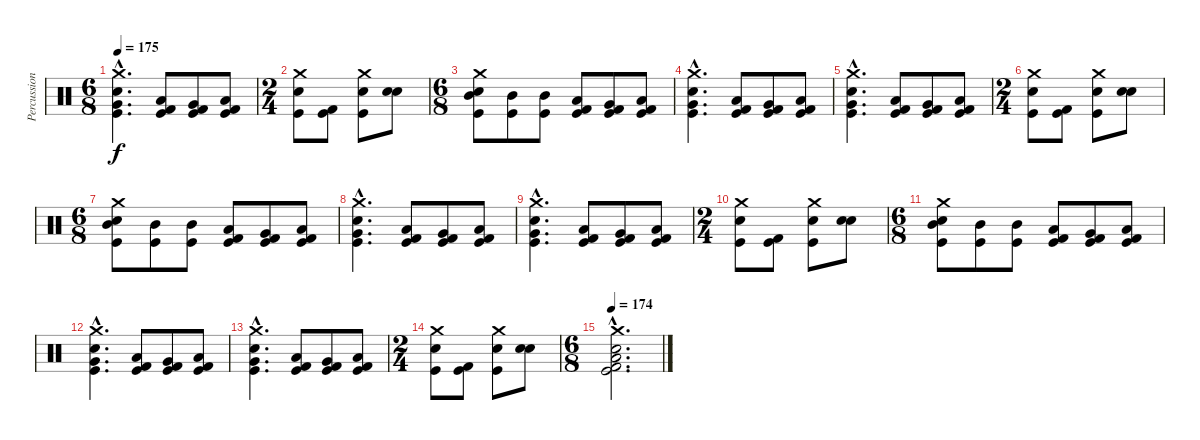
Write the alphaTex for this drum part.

\track ("Percussion" "Percussion") {instrument percussion}
\staff {score}
\articulation defaults
\ts (6 8)
\tempo 175
\clef neutral
\ks c
("Crash medium (hit)"{hac} "Electric Snare (hit)"{hac} "Very Low Tom (hit)"{hac} "Kick (hit)"{hac}).4{d dy f} ("Low Tom (hit)" "Kick (hit) 2" "Kick (hit)").8 ("Very Low Tom (hit)" "Kick (hit) 2" "Kick (hit)").8 ("Low Floor Tom (hit)" "Kick (hit) 2" "Kick (hit)").8 |
\ts (2 4)
("Crash medium (hit)" "Electric Snare (hit)" "Kick (hit)").8 ("Kick (hit) 2" "Kick (hit)").8 ("Crash medium (hit)" "Electric Snare (hit)" "Kick (hit)").8 ("Electric Snare (hit)" "Snare (hit) 2").8 |
\ts (6 8)
("Crash medium (hit)" "Electric Snare (hit)" "Mid Tom (hit)" "Kick (hit)").8 ("Mid Tom (hit)" "Kick (hit)").8 ("Mid Tom (hit)" "Kick (hit)").8 ("Low Tom (hit)" "Kick (hit) 2" "Kick (hit)").8 ("Very Low Tom (hit)" "Kick (hit) 2" "Kick (hit)").8 ("Low Floor Tom (hit)" "Kick (hit) 2" "Kick (hit)").8 |
("Crash medium (hit)"{hac} "Electric Snare (hit)"{hac} "Very Low Tom (hit)"{hac} "Kick (hit)"{hac}).4{d} ("Low Tom (hit)" "Kick (hit) 2" "Kick (hit)").8 ("Very Low Tom (hit)" "Kick (hit) 2" "Kick (hit)").8 ("Low Floor Tom (hit)" "Kick (hit) 2" "Kick (hit)").8 |
("Crash medium (hit)"{hac} "Electric Snare (hit)"{hac} "Very Low Tom (hit)"{hac} "Kick (hit)"{hac}).4{d} ("Low Tom (hit)" "Kick (hit) 2" "Kick (hit)").8 ("Very Low Tom (hit)" "Kick (hit) 2" "Kick (hit)").8 ("Low Floor Tom (hit)" "Kick (hit) 2" "Kick (hit)").8 |
\ts (2 4)
("Crash medium (hit)" "Electric Snare (hit)" "Kick (hit)").8 ("Kick (hit) 2" "Kick (hit)").8 ("Crash medium (hit)" "Electric Snare (hit)" "Kick (hit)").8 ("Electric Snare (hit)" "Snare (hit) 2").8 |
\ts (6 8)
("Crash medium (hit)" "Electric Snare (hit)" "Mid Tom (hit)" "Kick (hit)").8 ("Mid Tom (hit)" "Kick (hit)").8 ("Mid Tom (hit)" "Kick (hit)").8 ("Low Tom (hit)" "Kick (hit) 2" "Kick (hit)").8 ("Very Low Tom (hit)" "Kick (hit) 2" "Kick (hit)").8 ("Low Floor Tom (hit)" "Kick (hit) 2" "Kick (hit)").8 |
("Crash medium (hit)"{hac} "Electric Snare (hit)"{hac} "Very Low Tom (hit)"{hac} "Kick (hit)"{hac}).4{d} ("Low Tom (hit)" "Kick (hit) 2" "Kick (hit)").8 ("Very Low Tom (hit)" "Kick (hit) 2" "Kick (hit)").8 ("Low Floor Tom (hit)" "Kick (hit) 2" "Kick (hit)").8 |
("Crash medium (hit)"{hac} "Electric Snare (hit)"{hac} "Very Low Tom (hit)"{hac} "Kick (hit)"{hac}).4{d} ("Low Tom (hit)" "Kick (hit) 2" "Kick (hit)").8 ("Very Low Tom (hit)" "Kick (hit) 2" "Kick (hit)").8 ("Low Floor Tom (hit)" "Kick (hit) 2" "Kick (hit)").8 |
\ts (2 4)
("Crash medium (hit)" "Electric Snare (hit)" "Kick (hit)").8 ("Kick (hit) 2" "Kick (hit)").8 ("Crash medium (hit)" "Electric Snare (hit)" "Kick (hit)").8 ("Electric Snare (hit)" "Snare (hit) 2").8 |
\ts (6 8)
("Crash medium (hit)" "Electric Snare (hit)" "Mid Tom (hit)" "Kick (hit)").8 ("Mid Tom (hit)" "Kick (hit)").8 ("Mid Tom (hit)" "Kick (hit)").8 ("Low Tom (hit)" "Kick (hit) 2" "Kick (hit)").8 ("Very Low Tom (hit)" "Kick (hit) 2" "Kick (hit)").8 ("Low Floor Tom (hit)" "Kick (hit) 2" "Kick (hit)").8 |
("Crash medium (hit)"{hac} "Electric Snare (hit)"{hac} "Very Low Tom (hit)"{hac} "Kick (hit)"{hac}).4{d} ("Low Tom (hit)" "Kick (hit) 2" "Kick (hit)").8 ("Very Low Tom (hit)" "Kick (hit) 2" "Kick (hit)").8 ("Low Floor Tom (hit)" "Kick (hit) 2" "Kick (hit)").8 |
("Crash medium (hit)"{hac} "Electric Snare (hit)"{hac} "Very Low Tom (hit)"{hac} "Kick (hit)"{hac}).4{d} ("Low Tom (hit)" "Kick (hit) 2" "Kick (hit)").8 ("Very Low Tom (hit)" "Kick (hit) 2" "Kick (hit)").8 ("Low Floor Tom (hit)" "Kick (hit) 2" "Kick (hit)").8 |
\ts (2 4)
("Crash medium (hit)" "Electric Snare (hit)" "Kick (hit)").8 ("Kick (hit) 2" "Kick (hit)").8 ("Crash medium (hit)" "Electric Snare (hit)" "Kick (hit)").8 ("Electric Snare (hit)" "Snare (hit) 2").8 |
\ts (6 8)
\tempo 174
("Crash medium (hit)"{hac} "Electric Snare (hit)"{hac} "Low Floor Tom (hit)"{hac} "Kick (hit) 2"{hac} "Kick (hit)"{hac}).2{d}
